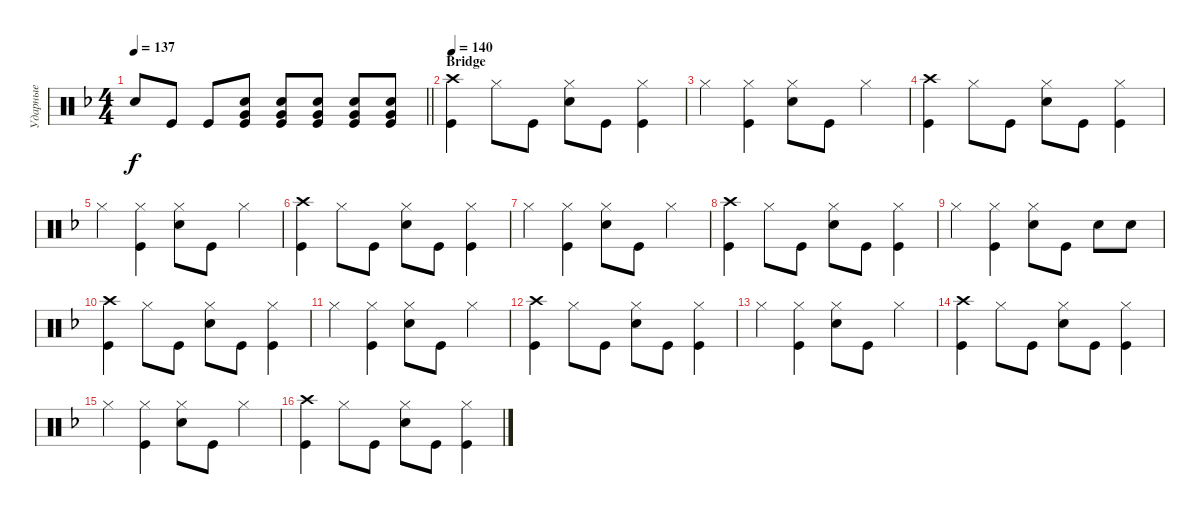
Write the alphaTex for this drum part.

\track ("Ударные" "Ударные") {instrument percussion}
\staff {score}
\articulation defaults
\ts (4 4)
\tempo 137
\clef neutral
\barLineRight lightlight
\ks dminor "Snare (hit) 2".8{dy f} "Kick (hit)".8 "Kick (hit)".8
("Kick (hit)" "Snare (hit) 2" "Very Low Tom (hit)").8{bd 60} ("Kick (hit)" "Snare (hit) 2" "Very Low Tom (hit)").8{bd 60} ("Kick (hit)" "Snare (hit) 2" "Very Low Tom (hit)").8{bd 60} ("Kick (hit)" "Snare (hit) 2" "Very Low Tom (hit)").8{bd 60} ("Kick (hit)" "Snare (hit) 2" "Very Low Tom (hit)").8{bd 60} |
\section ("" "Bridge")
\tempo 140
("Kick (hit)" "Crash high (hit)").4 "Hi-Hat (closed)".8 "Kick (hit)".8 ("Snare (hit) 2" "Hi-Hat (closed)").8 "Kick (hit)".8 ("Kick (hit)" "Hi-Hat (closed)").4 |
"Hi-Hat (closed)".4 ("Kick (hit)" "Hi-Hat (closed)").4 ("Snare (hit) 2" "Hi-Hat (closed)").8 "Kick (hit)".8 "Hi-Hat (closed)".4 |
("Kick (hit)" "Crash high (hit)").4 "Hi-Hat (closed)".8 "Kick (hit)".8 ("Snare (hit) 2" "Hi-Hat (closed)").8 "Kick (hit)".8 ("Kick (hit)" "Hi-Hat (closed)").4 |
"Hi-Hat (closed)".4 ("Kick (hit)" "Hi-Hat (closed)").4 ("Snare (hit) 2" "Hi-Hat (closed)").8 "Kick (hit)".8 "Hi-Hat (closed)".4 |
("Kick (hit)" "Crash high (hit)").4 "Hi-Hat (closed)".8 "Kick (hit)".8 ("Snare (hit) 2" "Hi-Hat (closed)").8 "Kick (hit)".8 ("Kick (hit)" "Hi-Hat (closed)").4 |
"Hi-Hat (closed)".4 ("Kick (hit)" "Hi-Hat (closed)").4 ("Snare (hit) 2" "Hi-Hat (closed)").8 "Kick (hit)".8 "Hi-Hat (closed)".4 |
("Kick (hit)" "Crash high (hit)").4 "Hi-Hat (closed)".8 "Kick (hit)".8 ("Snare (hit) 2" "Hi-Hat (closed)").8 "Kick (hit)".8 ("Kick (hit)" "Hi-Hat (closed)").4 |
"Hi-Hat (closed)".4 ("Kick (hit)" "Hi-Hat (closed)").4 ("Snare (hit) 2" "Hi-Hat (closed)").8 "Kick (hit)".8 "Snare (hit) 2".8 "Snare (hit) 2".8 |
("Kick (hit)" "Crash high (hit)").4 "Hi-Hat (closed)".8 "Kick (hit)".8 ("Snare (hit) 2" "Hi-Hat (closed)").8 "Kick (hit)".8 ("Kick (hit)" "Hi-Hat (closed)").4 |
"Hi-Hat (closed)".4 ("Kick (hit)" "Hi-Hat (closed)").4 ("Snare (hit) 2" "Hi-Hat (closed)").8 "Kick (hit)".8 "Hi-Hat (closed)".4 |
("Kick (hit)" "Crash high (hit)").4 "Hi-Hat (closed)".8 "Kick (hit)".8 ("Snare (hit) 2" "Hi-Hat (closed)").8 "Kick (hit)".8 ("Kick (hit)" "Hi-Hat (closed)").4 |
"Hi-Hat (closed)".4 ("Kick (hit)" "Hi-Hat (closed)").4 ("Snare (hit) 2" "Hi-Hat (closed)").8 "Kick (hit)".8 "Hi-Hat (closed)".4 |
("Kick (hit)" "Crash high (hit)").4 "Hi-Hat (closed)".8 "Kick (hit)".8 ("Snare (hit) 2" "Hi-Hat (closed)").8 "Kick (hit)".8 ("Kick (hit)" "Hi-Hat (closed)").4 |
"Hi-Hat (closed)".4 ("Kick (hit)" "Hi-Hat (closed)").4 ("Snare (hit) 2" "Hi-Hat (closed)").8 "Kick (hit)".8 "Hi-Hat (closed)".4 |
("Kick (hit)" "Crash high (hit)").4 "Hi-Hat (closed)".8 "Kick (hit)".8 ("Snare (hit) 2" "Hi-Hat (closed)").8 "Kick (hit)".8 ("Kick (hit)" "Hi-Hat (closed)").4
